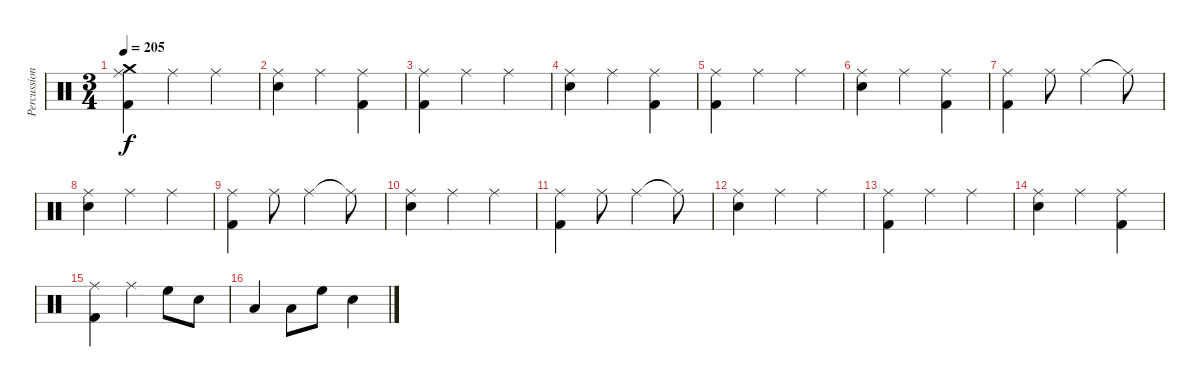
\track ("Percussion" "Percussion") {instrument percussion}
\staff {score}
\articulation defaults
\ts (3 4)
\tempo 205
\clef neutral
\ks c
("Ride (middle)" "Crash medium (hit)" "Kick (hit) 2").4{dy f} "Ride (middle)".4 "Ride (middle)".4 |
("Ride (middle)" "Electric Snare (hit)").4 "Ride (middle)".4 ("Ride (middle)" "Kick (hit) 2").4 |
("Ride (middle)" "Kick (hit) 2").4 "Ride (middle)".4 "Ride (middle)".4 |
("Ride (middle)" "Electric Snare (hit)").4 "Ride (middle)".4 ("Ride (middle)" "Kick (hit) 2").4 |
("Ride (middle)" "Kick (hit) 2").4 "Ride (middle)".4 "Ride (middle)".4 |
("Ride (middle)" "Electric Snare (hit)").4 "Ride (middle)".4 ("Ride (middle)" "Kick (hit) 2").4 |
("Ride (middle)" "Kick (hit) 2").4 "Ride (middle)".8 "Ride (middle)".4 "Ride (middle)"{t}.8 |
("Ride (middle)" "Electric Snare (hit)").4 "Ride (middle)".4 "Ride (middle)".4 |
("Ride (middle)" "Kick (hit) 2").4 "Ride (middle)".8 "Ride (middle)".4 "Ride (middle)"{t}.8 |
("Ride (middle)" "Electric Snare (hit)").4 "Ride (middle)".4 "Ride (middle)".4 |
("Ride (middle)" "Kick (hit) 2").4 "Ride (middle)".8 "Ride (middle)".4 "Ride (middle)"{t}.8 |
("Ride (middle)" "Electric Snare (hit)").4 "Ride (middle)".4 "Ride (middle)".4 |
("Ride (middle)" "Kick (hit) 2").4 "Ride (middle)".4 "Ride (middle)".4 |
("Ride (middle)" "Electric Snare (hit)").4 "Ride (middle)".4 ("Ride (middle)" "Kick (hit) 2").4 |
("Ride (middle)" "Kick (hit) 2").4 "Ride (middle)".4 "High Floor Tom (hit)".8 "Electric Snare (hit)".8 |
"Low Tom (hit)".4 "Low Tom (hit)".8 "High Floor Tom (hit)".8 "Electric Snare (hit)".4
